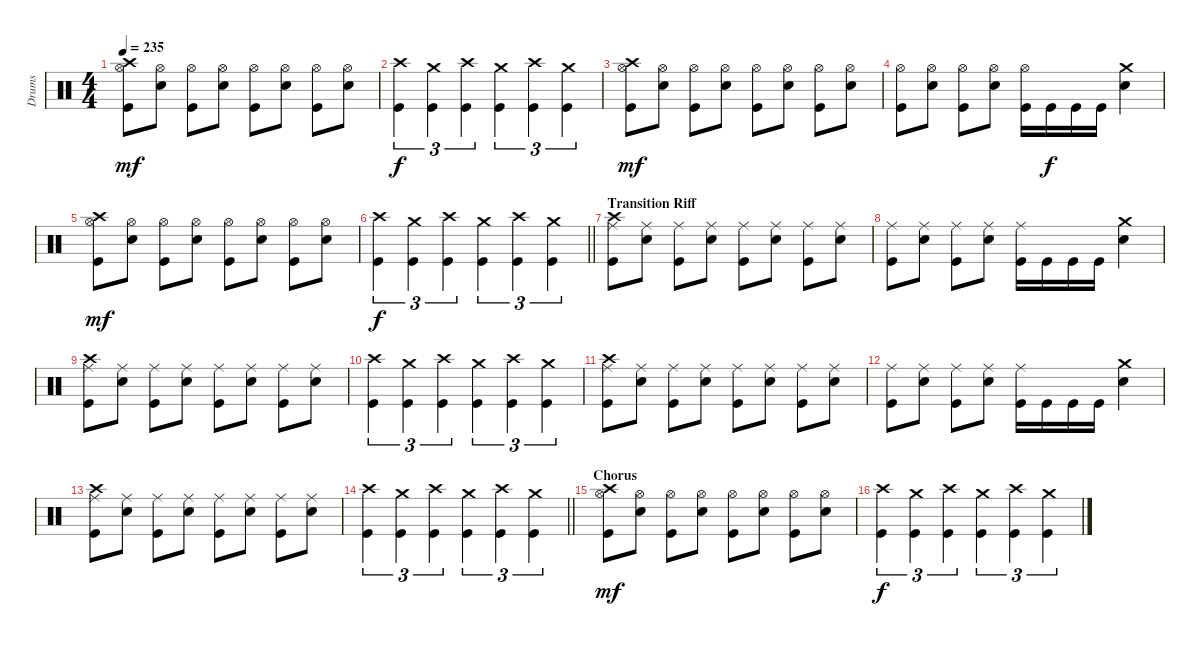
\track ("Drums" "Drums") {instrument percussion}
\staff {score}
\articulation defaults
\ts (4 4)
\tempo 235
\clef neutral
\ks c
("Crash high (hit)" "Hi-Hat (open)" "Kick (hit)").8{dy mf} ("Hi-Hat (open)" "Electric Snare (hit)").8 ("Hi-Hat (open)" "Kick (hit)").8 ("Hi-Hat (open)" "Electric Snare (hit)").8 ("Hi-Hat (open)" "Kick (hit)").8 ("Hi-Hat (open)" "Electric Snare (hit)").8 ("Hi-Hat (open)" "Kick (hit)").8 ("Hi-Hat (open)" "Electric Snare (hit)").8 |
("Crash high (hit)" "Kick (hit)").4{tu (3 2) dy f} ("Crash medium (hit)" "Kick (hit)").4{tu (3 2)} ("Crash high (hit)" "Kick (hit)").4{tu (3 2)} ("Crash medium (hit)" "Kick (hit)").4{tu (3 2)} ("Crash high (hit)" "Kick (hit)").4{tu (3 2)} ("Crash medium (hit)" "Kick (hit)").4{tu (3 2)} |
("Crash high (hit)" "Hi-Hat (open)" "Kick (hit)").8{dy mf} ("Hi-Hat (open)" "Electric Snare (hit)").8 ("Hi-Hat (open)" "Kick (hit)").8 ("Hi-Hat (open)" "Electric Snare (hit)").8 ("Hi-Hat (open)" "Kick (hit)").8 ("Hi-Hat (open)" "Electric Snare (hit)").8 ("Hi-Hat (open)" "Kick (hit)").8 ("Hi-Hat (open)" "Electric Snare (hit)").8 |
("Hi-Hat (open)" "Kick (hit)").8 ("Hi-Hat (open)" "Electric Snare (hit)").8 ("Hi-Hat (open)" "Kick (hit)").8 ("Hi-Hat (open)" "Electric Snare (hit)").8 ("Hi-Hat (open)" "Kick (hit)").16 "Kick (hit)".16{dy f} "Kick (hit)".16 "Kick (hit)".16 ("Crash medium (hit)" "Electric Snare (hit)").4 |
("Crash high (hit)" "Hi-Hat (open)" "Kick (hit)").8{dy mf} ("Hi-Hat (open)" "Electric Snare (hit)").8 ("Hi-Hat (open)" "Kick (hit)").8 ("Hi-Hat (open)" "Electric Snare (hit)").8 ("Hi-Hat (open)" "Kick (hit)").8 ("Hi-Hat (open)" "Electric Snare (hit)").8 ("Hi-Hat (open)" "Kick (hit)").8 ("Hi-Hat (open)" "Electric Snare (hit)").8 |
\barLineRight lightlight
("Crash high (hit)" "Kick (hit)").4{tu (3 2) dy f} ("Crash medium (hit)" "Kick (hit)").4{tu (3 2)} ("Crash high (hit)" "Kick (hit)").4{tu (3 2)} ("Crash medium (hit)" "Kick (hit)").4{tu (3 2)} ("Crash high (hit)" "Kick (hit)").4{tu (3 2)} ("Crash medium (hit)" "Kick (hit)").4{tu (3 2)} |
\section ("" "Transition Riff")
("Crash high (hit)" "Ride (middle)" "Kick (hit)").8 ("Ride (middle)" "Electric Snare (hit)").8 ("Ride (middle)" "Kick (hit)").8 ("Ride (middle)" "Electric Snare (hit)").8 ("Ride (middle)" "Kick (hit)").8 ("Ride (middle)" "Electric Snare (hit)").8 ("Ride (middle)" "Kick (hit)").8 ("Ride (middle)" "Electric Snare (hit)").8 |
("Ride (middle)" "Kick (hit)").8 ("Ride (middle)" "Electric Snare (hit)").8 ("Ride (middle)" "Kick (hit)").8 ("Ride (middle)" "Electric Snare (hit)").8 ("Ride (middle)" "Kick (hit)").16 "Kick (hit)".16 "Kick (hit)".16 "Kick (hit)".16 ("Crash medium (hit)" "Electric Snare (hit)").4 |
("Crash high (hit)" "Ride (middle)" "Kick (hit)").8 ("Ride (middle)" "Electric Snare (hit)").8 ("Ride (middle)" "Kick (hit)").8 ("Ride (middle)" "Electric Snare (hit)").8 ("Ride (middle)" "Kick (hit)").8 ("Ride (middle)" "Electric Snare (hit)").8 ("Ride (middle)" "Kick (hit)").8 ("Ride (middle)" "Electric Snare (hit)").8 |
("Crash high (hit)" "Kick (hit)").4{tu (3 2)} ("Crash medium (hit)" "Kick (hit)").4{tu (3 2)} ("Crash high (hit)" "Kick (hit)").4{tu (3 2)} ("Crash medium (hit)" "Kick (hit)").4{tu (3 2)} ("Crash high (hit)" "Kick (hit)").4{tu (3 2)} ("Crash medium (hit)" "Kick (hit)").4{tu (3 2)} |
("Crash high (hit)" "Ride (middle)" "Kick (hit)").8 ("Ride (middle)" "Electric Snare (hit)").8 ("Ride (middle)" "Kick (hit)").8 ("Ride (middle)" "Electric Snare (hit)").8 ("Ride (middle)" "Kick (hit)").8 ("Ride (middle)" "Electric Snare (hit)").8 ("Ride (middle)" "Kick (hit)").8 ("Ride (middle)" "Electric Snare (hit)").8 |
("Ride (middle)" "Kick (hit)").8 ("Ride (middle)" "Electric Snare (hit)").8 ("Ride (middle)" "Kick (hit)").8 ("Ride (middle)" "Electric Snare (hit)").8 ("Ride (middle)" "Kick (hit)").16 "Kick (hit)".16 "Kick (hit)".16 "Kick (hit)".16 ("Crash medium (hit)" "Electric Snare (hit)").4 |
("Crash high (hit)" "Ride (middle)" "Kick (hit)").8 ("Ride (middle)" "Electric Snare (hit)").8 ("Ride (middle)" "Kick (hit)").8 ("Ride (middle)" "Electric Snare (hit)").8 ("Ride (middle)" "Kick (hit)").8 ("Ride (middle)" "Electric Snare (hit)").8 ("Ride (middle)" "Kick (hit)").8 ("Ride (middle)" "Electric Snare (hit)").8 |
\barLineRight lightlight
("Crash high (hit)" "Kick (hit)").4{tu (3 2)} ("Crash medium (hit)" "Kick (hit)").4{tu (3 2)} ("Crash high (hit)" "Kick (hit)").4{tu (3 2)} ("Crash medium (hit)" "Kick (hit)").4{tu (3 2)} ("Crash high (hit)" "Kick (hit)").4{tu (3 2)} ("Crash medium (hit)" "Kick (hit)").4{tu (3 2)} |
\section ("" "Chorus")
("Crash high (hit)" "Hi-Hat (open)" "Kick (hit)").8{dy mf} ("Hi-Hat (open)" "Electric Snare (hit)").8 ("Hi-Hat (open)" "Kick (hit)").8 ("Hi-Hat (open)" "Electric Snare (hit)").8 ("Hi-Hat (open)" "Kick (hit)").8 ("Hi-Hat (open)" "Electric Snare (hit)").8 ("Hi-Hat (open)" "Kick (hit)").8 ("Hi-Hat (open)" "Electric Snare (hit)").8 |
("Crash high (hit)" "Kick (hit)").4{tu (3 2) dy f} ("Crash medium (hit)" "Kick (hit)").4{tu (3 2)} ("Crash high (hit)" "Kick (hit)").4{tu (3 2)} ("Crash medium (hit)" "Kick (hit)").4{tu (3 2)} ("Crash high (hit)" "Kick (hit)").4{tu (3 2)} ("Crash medium (hit)" "Kick (hit)").4{tu (3 2)}
